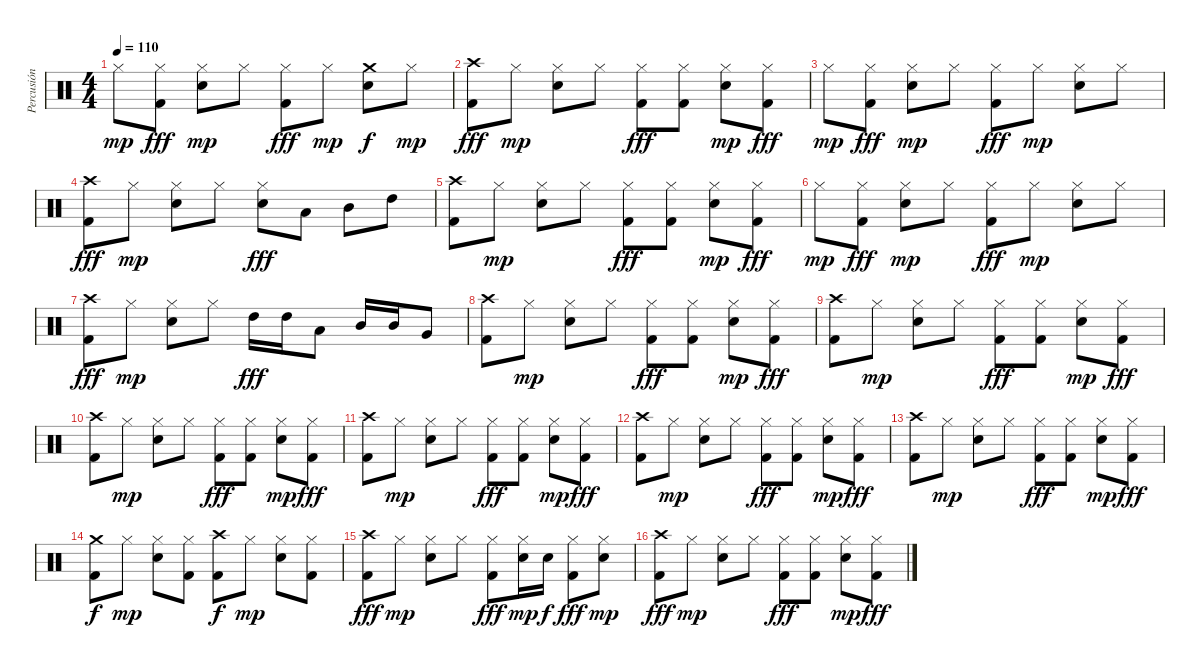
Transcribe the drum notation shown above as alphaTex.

\track ("Percusión" "Percusión") {instrument percussion}
\staff {score}
\articulation defaults
\ts (4 4)
\tempo 110
\clef neutral
\ks c "Hi-Hat (closed)".8{dy mp}
("Hi-Hat (closed)" "Kick (hit) 2").8{dy fff} ("Hi-Hat (closed)" "Snare (hit) 2").8{dy mp} "Hi-Hat (closed)".8 ("Hi-Hat (closed)" "Kick (hit) 2").8{dy fff} "Hi-Hat (closed)".8{dy mp} ("Crash medium (hit)" "Snare (hit) 2").8{dy f} "Hi-Hat (closed)".8{dy mp} |
("Crash high (hit)" "Kick (hit) 2").8{dy fff} "Hi-Hat (closed)".8{dy mp} ("Hi-Hat (closed)" "Snare (hit) 2").8 "Hi-Hat (closed)".8 ("Hi-Hat (closed)" "Kick (hit) 2").8{dy fff} ("Hi-Hat (closed)" "Kick (hit) 2").8 ("Hi-Hat (closed)" "Snare (hit) 2").8{dy mp} ("Hi-Hat (closed)" "Kick (hit) 2").8{dy fff} |
"Hi-Hat (closed)".8{dy mp} ("Hi-Hat (closed)" "Kick (hit) 2").8{dy fff} ("Hi-Hat (closed)" "Snare (hit) 2").8{dy mp} "Hi-Hat (closed)".8 ("Hi-Hat (closed)" "Kick (hit) 2").8{dy fff} "Hi-Hat (closed)".8{dy mp} ("Hi-Hat (closed)" "Snare (hit) 2").8 "Hi-Hat (closed)".8 |
("Crash high (hit)" "Kick (hit) 2").8{dy fff} "Hi-Hat (closed)".8{dy mp} ("Hi-Hat (closed)" "Snare (hit) 2").8 "Hi-Hat (closed)".8 ("Hi-Hat (closed)" "Snare (hit) 2").8{dy fff} "Low Tom (hit)".8 "Mid Tom (hit)".8 "High Tom (hit)".8 |
("Crash high (hit)" "Kick (hit) 2").8 "Hi-Hat (closed)".8{dy mp} ("Hi-Hat (closed)" "Snare (hit) 2").8 "Hi-Hat (closed)".8 ("Hi-Hat (closed)" "Kick (hit) 2").8{dy fff} ("Hi-Hat (closed)" "Kick (hit) 2").8 ("Hi-Hat (closed)" "Snare (hit) 2").8{dy mp} ("Hi-Hat (closed)" "Kick (hit) 2").8{dy fff} |
"Hi-Hat (closed)".8{dy mp} ("Hi-Hat (closed)" "Kick (hit) 2").8{dy fff} ("Hi-Hat (closed)" "Snare (hit) 2").8{dy mp} "Hi-Hat (closed)".8 ("Hi-Hat (closed)" "Kick (hit) 2").8{dy fff} "Hi-Hat (closed)".8{dy mp} ("Hi-Hat (closed)" "Snare (hit) 2").8 "Hi-Hat (closed)".8 |
("Crash high (hit)" "Kick (hit) 2").8{dy fff} "Hi-Hat (closed)".8{dy mp} ("Hi-Hat (closed)" "Snare (hit) 2").8 "Hi-Hat (closed)".8 "High Tom (hit)".16{dy fff} "High Tom (hit)".16 "Low Tom (hit)".8 "Mid Tom (hit)".16 "Mid Tom (hit)".16 "Very Low Tom (hit)".8 |
("Crash high (hit)" "Kick (hit) 2").8 "Hi-Hat (closed)".8{dy mp} ("Hi-Hat (closed)" "Snare (hit) 2").8 "Hi-Hat (closed)".8 ("Hi-Hat (closed)" "Kick (hit) 2").8{dy fff} ("Hi-Hat (closed)" "Kick (hit) 2").8 ("Hi-Hat (closed)" "Snare (hit) 2").8{dy mp} ("Hi-Hat (closed)" "Kick (hit) 2").8{dy fff} |
("Crash high (hit)" "Kick (hit) 2").8 "Hi-Hat (closed)".8{dy mp} ("Hi-Hat (closed)" "Snare (hit) 2").8 "Hi-Hat (closed)".8 ("Hi-Hat (closed)" "Kick (hit) 2").8{dy fff} ("Hi-Hat (closed)" "Kick (hit) 2").8 ("Hi-Hat (closed)" "Snare (hit) 2").8{dy mp} ("Hi-Hat (closed)" "Kick (hit) 2").8{dy fff} |
("Crash high (hit)" "Kick (hit) 2").8 "Hi-Hat (closed)".8{dy mp} ("Hi-Hat (closed)" "Snare (hit) 2").8 "Hi-Hat (closed)".8 ("Hi-Hat (closed)" "Kick (hit) 2").8{dy fff} ("Hi-Hat (closed)" "Kick (hit) 2").8 ("Hi-Hat (closed)" "Snare (hit) 2").8{dy mp} ("Hi-Hat (closed)" "Kick (hit) 2").8{dy fff} |
("Crash high (hit)" "Kick (hit) 2").8 "Hi-Hat (closed)".8{dy mp} ("Hi-Hat (closed)" "Snare (hit) 2").8 "Hi-Hat (closed)".8 ("Hi-Hat (closed)" "Kick (hit) 2").8{dy fff} ("Hi-Hat (closed)" "Kick (hit) 2").8 ("Hi-Hat (closed)" "Snare (hit) 2").8{dy mp} ("Hi-Hat (closed)" "Kick (hit) 2").8{dy fff} |
("Crash high (hit)" "Kick (hit) 2").8 "Hi-Hat (closed)".8{dy mp} ("Hi-Hat (closed)" "Snare (hit) 2").8 "Hi-Hat (closed)".8 ("Hi-Hat (closed)" "Kick (hit) 2").8{dy fff} ("Hi-Hat (closed)" "Kick (hit) 2").8 ("Hi-Hat (closed)" "Snare (hit) 2").8{dy mp} ("Hi-Hat (closed)" "Kick (hit) 2").8{dy fff} |
("Crash high (hit)" "Kick (hit) 2").8 "Hi-Hat (closed)".8{dy mp} ("Hi-Hat (closed)" "Snare (hit) 2").8 "Hi-Hat (closed)".8 ("Hi-Hat (closed)" "Kick (hit) 2").8{dy fff} ("Hi-Hat (closed)" "Kick (hit) 2").8 ("Hi-Hat (closed)" "Snare (hit) 2").8{dy mp} ("Hi-Hat (closed)" "Kick (hit) 2").8{dy fff} |
("Crash medium (hit)" "Kick (hit) 2").8{dy f} "Hi-Hat (closed)".8{dy mp} ("Hi-Hat (closed)" "Snare (hit) 2").8 ("Hi-Hat (closed)" "Kick (hit) 2").8 ("Crash high (hit)" "Kick (hit) 2").8{dy f} "Hi-Hat (closed)".8{dy mp} ("Hi-Hat (closed)" "Snare (hit) 2").8 ("Hi-Hat (closed)" "Kick (hit) 2").8 |
("Crash high (hit)" "Kick (hit) 2").8{dy fff} "Hi-Hat (closed)".8{dy mp} ("Hi-Hat (closed)" "Snare (hit) 2").8 "Hi-Hat (closed)".8 ("Hi-Hat (closed)" "Kick (hit) 2").8{dy fff} ("Hi-Hat (closed)" "Snare (hit) 2").16{dy mp} "Snare (hit) 2".16{dy f} ("Hi-Hat (closed)" "Kick (hit) 2").8{dy fff} ("Hi-Hat (closed)" "Snare (hit) 2").8{dy mp} |
("Crash high (hit)" "Kick (hit) 2").8{dy fff} "Hi-Hat (closed)".8{dy mp} ("Hi-Hat (closed)" "Snare (hit) 2").8 "Hi-Hat (closed)".8 ("Hi-Hat (closed)" "Kick (hit) 2").8{dy fff} ("Hi-Hat (closed)" "Kick (hit) 2").8 ("Hi-Hat (closed)" "Snare (hit) 2").8{dy mp} ("Hi-Hat (closed)" "Kick (hit) 2").8{dy fff}
